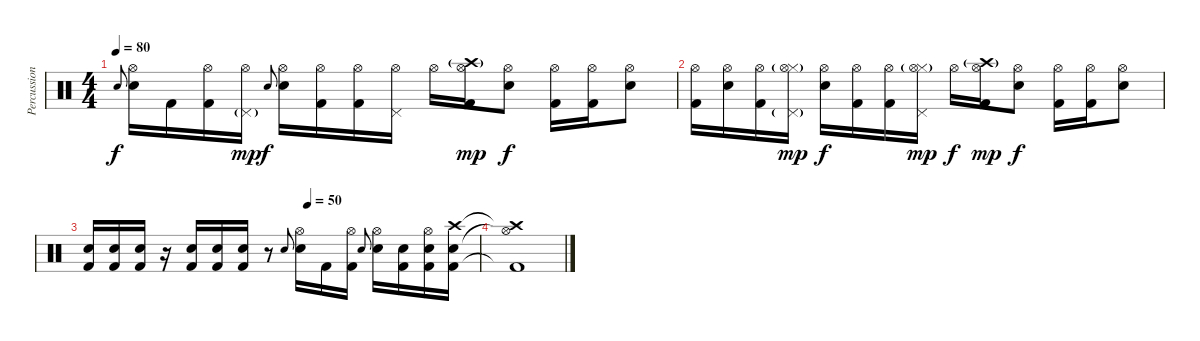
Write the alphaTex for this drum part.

\track ("Percussion" "Percussion") {instrument percussion}
\staff {score}
\articulation defaults
\ts (4 4)
\tempo 80
\clef neutral
\ks c "Snare (hit) 2".8{gr onbeat dy f}
("Hi-Hat (open)" "Snare (hit) 2").16 "Kick (hit) 2".16 ("Hi-Hat (open)" "Kick (hit) 2").16 ("Hi-Hat (open)" "Pedal Hi-Hat (hit)"{g}).16{dy mp} "Snare (hit) 2".8{gr onbeat dy f} ("Hi-Hat (open)" "Snare (hit) 2").16 ("Hi-Hat (open)" "Kick (hit) 2").16 ("Hi-Hat (open)" "Kick (hit) 2").16 ("Hi-Hat (open)" "Pedal Hi-Hat (hit)").16 "Hi-Hat (open)".16 ("Crash high (hit)"{g} "Hi-Hat (open)" "Kick (hit) 2").16{dy mp} ("Hi-Hat (open)" "Snare (hit) 2").8{dy f} ("Hi-Hat (open)" "Kick (hit) 2").16 ("Hi-Hat (open)" "Kick (hit) 2").16 ("Hi-Hat (open)" "Snare (hit) 2").8 |
("Hi-Hat (open)" "Kick (hit) 2").16 ("Hi-Hat (open)" "Snare (hit) 2").16 ("Hi-Hat (open)" "Kick (hit) 2").16 ("Hi-Hat (closed)"{g} "Hi-Hat (open)" "Pedal Hi-Hat (hit)"{g}).16{dy mp} ("Hi-Hat (open)" "Snare (hit) 2").16{dy f} ("Hi-Hat (open)" "Kick (hit) 2").16 ("Hi-Hat (open)" "Kick (hit) 2").16 ("Hi-Hat (closed)"{g} "Hi-Hat (open)" "Pedal Hi-Hat (hit)").16{dy mp} "Hi-Hat (open)".16{dy f} ("Crash high (hit)"{g} "Hi-Hat (open)" "Kick (hit) 2").16{dy mp} ("Hi-Hat (open)" "Snare (hit) 2").8{dy f} ("Hi-Hat (open)" "Kick (hit) 2").16 ("Hi-Hat (open)" "Kick (hit) 2").16 ("Hi-Hat (open)" "Snare (hit) 2").8 |
\tempo (70 0.5625)
\tempo (50 0.5625)
("Snare (hit) 2" "Kick (hit) 2").16 ("Snare (hit) 2" "Kick (hit) 2").16 ("Snare (hit) 2" "Kick (hit) 2").16 r.16 ("Snare (hit) 2" "Kick (hit) 2").16 ("Snare (hit) 2" "Kick (hit) 2").16 ("Snare (hit) 2" "Kick (hit) 2").16 r.8 "Snare (hit) 2".8{gr onbeat} ("Hi-Hat (open)" "Snare (hit) 2").16 "Kick (hit) 2".16 ("Hi-Hat (open)" "Kick (hit) 2").16 "Snare (hit) 2".8{gr onbeat} ("Hi-Hat (open)" "Snare (hit) 2").16 ("Snare (hit) 2" "Kick (hit) 2").16 ("Hi-Hat (open)" "Snare (hit) 2" "Kick (hit) 2").16 ("Crash high (hit)" "Electric Snare (hit)" "Kick (hit) 2").16 |
("Crash high (hit)"{t} "Hi-Hat (open)"{t} "Kick (hit) 2"{t}).1
